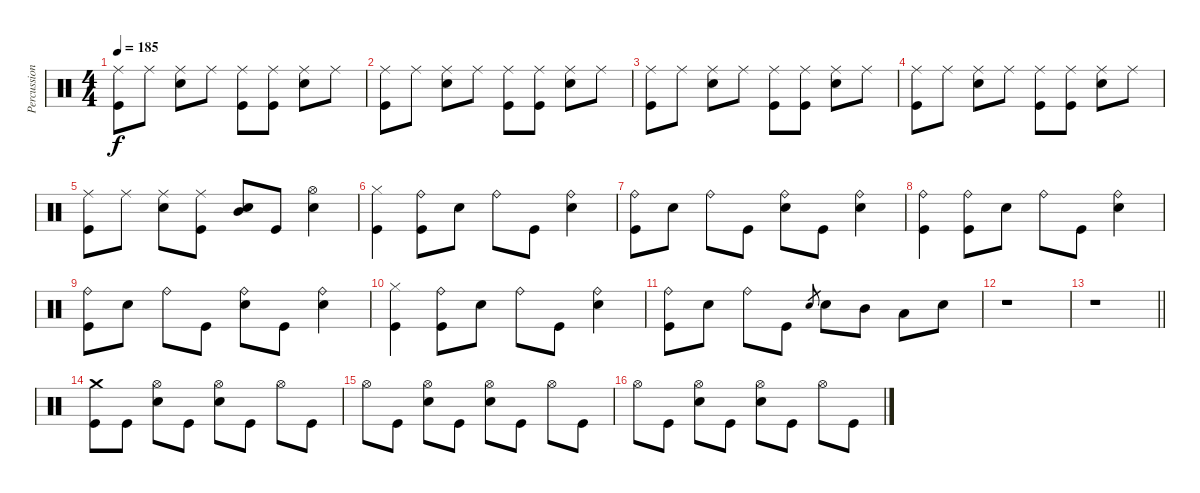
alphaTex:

\track ("Percussion" "Percussion") {instrument percussion}
\staff {score}
\articulation defaults
\ts (4 4)
\tempo 185
\clef neutral
\ks c
("Ride (middle)" "Kick (hit)").8{dy f} "Ride (middle)".8 ("Ride (middle)" "Electric Snare (hit)").8 "Ride (middle)".8 ("Ride (middle)" "Kick (hit)").8 ("Ride (middle)" "Kick (hit)").8 ("Ride (middle)" "Electric Snare (hit)").8 "Ride (middle)".8 |
("Ride (middle)" "Kick (hit)").8 "Ride (middle)".8 ("Ride (middle)" "Electric Snare (hit)").8 "Ride (middle)".8 ("Ride (middle)" "Kick (hit)").8 ("Ride (middle)" "Kick (hit)").8 ("Ride (middle)" "Electric Snare (hit)").8 "Ride (middle)".8 |
("Ride (middle)" "Kick (hit)").8 "Ride (middle)".8 ("Ride (middle)" "Electric Snare (hit)").8 "Ride (middle)".8 ("Ride (middle)" "Kick (hit)").8 ("Ride (middle)" "Kick (hit)").8 ("Ride (middle)" "Electric Snare (hit)").8 "Ride (middle)".8 |
("Ride (middle)" "Kick (hit)").8 "Ride (middle)".8 ("Ride (middle)" "Electric Snare (hit)").8 "Ride (middle)".8 ("Ride (middle)" "Kick (hit)").8 ("Ride (middle)" "Kick (hit)").8 ("Ride (middle)" "Electric Snare (hit)").8 "Ride (middle)".8 |
("Ride (middle)" "Kick (hit)").8 "Ride (middle)".8 ("Ride (middle)" "Electric Snare (hit)").8 ("Ride (middle)" "Kick (hit)").8 ("Electric Snare (hit)" "Mid Tom (hit)").8 "Kick (hit)".8 ("Hi-Hat (open)" "Electric Snare (hit)").4 |
("Hi-Hat (closed)" "Kick (hit)").4 ("Ride (bell)" "Kick (hit)").8 "Electric Snare (hit)".8 "Ride (bell)".8 "Kick (hit)".8 ("Ride (bell)" "Electric Snare (hit)").4 |
("Ride (bell)" "Kick (hit)").8 "Electric Snare (hit)".8 "Ride (bell)".8 "Kick (hit)".8 ("Ride (bell)" "Electric Snare (hit)").8 "Kick (hit)".8 ("Ride (bell)" "Electric Snare (hit)").4 |
("Ride (bell)" "Kick (hit)").4 ("Ride (bell)" "Kick (hit)").8 "Electric Snare (hit)".8 "Ride (bell)".8 "Kick (hit)".8 ("Ride (bell)" "Electric Snare (hit)").4 |
("Ride (bell)" "Kick (hit)").8 "Electric Snare (hit)".8 "Ride (bell)".8 "Kick (hit)".8 ("Ride (bell)" "Electric Snare (hit)").8 "Kick (hit)".8 ("Ride (bell)" "Electric Snare (hit)").4 |
("Hi-Hat (closed)" "Kick (hit)").4 ("Ride (bell)" "Kick (hit)").8 "Electric Snare (hit)".8 "Ride (bell)".8 "Kick (hit)".8 ("Ride (bell)" "Electric Snare (hit)").4 |
("Ride (bell)" "Kick (hit)").8 "Electric Snare (hit)".8 "Ride (bell)".8 "Kick (hit)".8 "Electric Snare (hit)".8{gr} "Electric Snare (hit)".8 "Mid Tom (hit)".8 "Low Tom (hit)".8 "Electric Snare (hit)".8 |
r.1 |
\barLineRight lightlight
r.1 |
("Crash medium (hit)" "Kick (hit)").8 "Kick (hit)".8 ("Hi-Hat (open)" "Electric Snare (hit)").8 "Kick (hit)".8 ("Hi-Hat (open)" "Electric Snare (hit)").8 "Kick (hit)".8 "Hi-Hat (open)".8 "Kick (hit)".8 |
"Hi-Hat (open)".8 "Kick (hit)".8 ("Hi-Hat (open)" "Electric Snare (hit)").8 "Kick (hit)".8 ("Hi-Hat (open)" "Electric Snare (hit)").8 "Kick (hit)".8 "Hi-Hat (open)".8 "Kick (hit)".8 |
"Hi-Hat (open)".8 "Kick (hit)".8 ("Hi-Hat (open)" "Electric Snare (hit)").8 "Kick (hit)".8 ("Hi-Hat (open)" "Electric Snare (hit)").8 "Kick (hit)".8 "Hi-Hat (open)".8 "Kick (hit)".8
